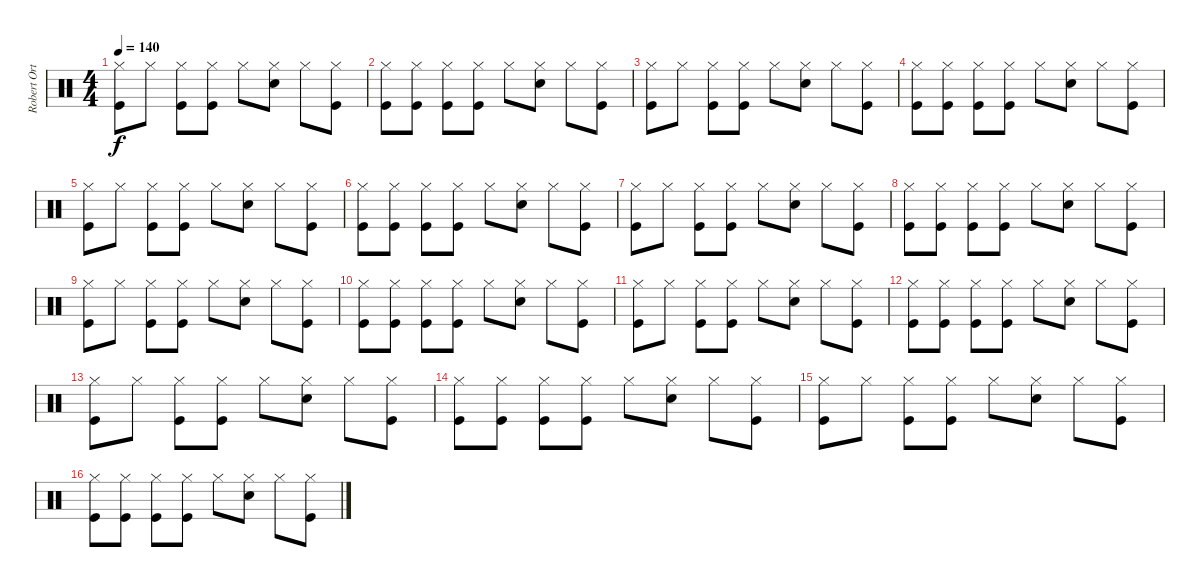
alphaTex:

\track ("Robert Ortiz" "Robert Ort") {instrument percussion}
\staff {score}
\articulation defaults
\ts (4 4)
\tempo 140
\clef neutral
\ks c
("Hi-Hat (closed)" "Kick (hit)").8{dy f} "Hi-Hat (closed)".8 ("Hi-Hat (closed)" "Kick (hit)").8 ("Hi-Hat (closed)" "Kick (hit)").8 "Hi-Hat (closed)".8 ("Hi-Hat (closed)" "Snare (hit) 2").8 "Hi-Hat (closed)".8 ("Hi-Hat (closed)" "Kick (hit)").8 |
("Hi-Hat (closed)" "Kick (hit)").8 ("Hi-Hat (closed)" "Kick (hit)").8 ("Hi-Hat (closed)" "Kick (hit)").8 ("Hi-Hat (closed)" "Kick (hit)").8 "Hi-Hat (closed)".8 ("Hi-Hat (closed)" "Snare (hit) 2").8 "Hi-Hat (closed)".8 ("Hi-Hat (closed)" "Kick (hit)").8 |
("Hi-Hat (closed)" "Kick (hit)").8 "Hi-Hat (closed)".8 ("Hi-Hat (closed)" "Kick (hit)").8 ("Hi-Hat (closed)" "Kick (hit)").8 "Hi-Hat (closed)".8 ("Hi-Hat (closed)" "Snare (hit) 2").8 "Hi-Hat (closed)".8 ("Hi-Hat (closed)" "Kick (hit)").8 |
("Hi-Hat (closed)" "Kick (hit)").8 ("Hi-Hat (closed)" "Kick (hit)").8 ("Hi-Hat (closed)" "Kick (hit)").8 ("Hi-Hat (closed)" "Kick (hit)").8 "Hi-Hat (closed)".8 ("Hi-Hat (closed)" "Snare (hit) 2").8 "Hi-Hat (closed)".8 ("Hi-Hat (closed)" "Kick (hit)").8 |
("Hi-Hat (closed)" "Kick (hit)").8 "Hi-Hat (closed)".8 ("Hi-Hat (closed)" "Kick (hit)").8 ("Hi-Hat (closed)" "Kick (hit)").8 "Hi-Hat (closed)".8 ("Hi-Hat (closed)" "Snare (hit) 2").8 "Hi-Hat (closed)".8 ("Hi-Hat (closed)" "Kick (hit)").8 |
("Hi-Hat (closed)" "Kick (hit)").8 ("Hi-Hat (closed)" "Kick (hit)").8 ("Hi-Hat (closed)" "Kick (hit)").8 ("Hi-Hat (closed)" "Kick (hit)").8 "Hi-Hat (closed)".8 ("Hi-Hat (closed)" "Snare (hit) 2").8 "Hi-Hat (closed)".8 ("Hi-Hat (closed)" "Kick (hit)").8 |
("Hi-Hat (closed)" "Kick (hit)").8 "Hi-Hat (closed)".8 ("Hi-Hat (closed)" "Kick (hit)").8 ("Hi-Hat (closed)" "Kick (hit)").8 "Hi-Hat (closed)".8 ("Hi-Hat (closed)" "Snare (hit) 2").8 "Hi-Hat (closed)".8 ("Hi-Hat (closed)" "Kick (hit)").8 |
("Hi-Hat (closed)" "Kick (hit)").8 ("Hi-Hat (closed)" "Kick (hit)").8 ("Hi-Hat (closed)" "Kick (hit)").8 ("Hi-Hat (closed)" "Kick (hit)").8 "Hi-Hat (closed)".8 ("Hi-Hat (closed)" "Snare (hit) 2").8 "Hi-Hat (closed)".8 ("Hi-Hat (closed)" "Kick (hit)").8 |
("Hi-Hat (closed)" "Kick (hit)").8 "Hi-Hat (closed)".8 ("Hi-Hat (closed)" "Kick (hit)").8 ("Hi-Hat (closed)" "Kick (hit)").8 "Hi-Hat (closed)".8 ("Hi-Hat (closed)" "Snare (hit) 2").8 "Hi-Hat (closed)".8 ("Hi-Hat (closed)" "Kick (hit)").8 |
("Hi-Hat (closed)" "Kick (hit)").8 ("Hi-Hat (closed)" "Kick (hit)").8 ("Hi-Hat (closed)" "Kick (hit)").8 ("Hi-Hat (closed)" "Kick (hit)").8 "Hi-Hat (closed)".8 ("Hi-Hat (closed)" "Snare (hit) 2").8 "Hi-Hat (closed)".8 ("Hi-Hat (closed)" "Kick (hit)").8 |
("Hi-Hat (closed)" "Kick (hit)").8 "Hi-Hat (closed)".8 ("Hi-Hat (closed)" "Kick (hit)").8 ("Hi-Hat (closed)" "Kick (hit)").8 "Hi-Hat (closed)".8 ("Hi-Hat (closed)" "Snare (hit) 2").8 "Hi-Hat (closed)".8 ("Hi-Hat (closed)" "Kick (hit)").8 |
("Hi-Hat (closed)" "Kick (hit)").8 ("Hi-Hat (closed)" "Kick (hit)").8 ("Hi-Hat (closed)" "Kick (hit)").8 ("Hi-Hat (closed)" "Kick (hit)").8 "Hi-Hat (closed)".8 ("Hi-Hat (closed)" "Snare (hit) 2").8 "Hi-Hat (closed)".8 ("Hi-Hat (closed)" "Kick (hit)").8 |
("Hi-Hat (closed)" "Kick (hit)").8 "Hi-Hat (closed)".8 ("Hi-Hat (closed)" "Kick (hit)").8 ("Hi-Hat (closed)" "Kick (hit)").8 "Hi-Hat (closed)".8 ("Hi-Hat (closed)" "Snare (hit) 2").8 "Hi-Hat (closed)".8 ("Hi-Hat (closed)" "Kick (hit)").8 |
("Hi-Hat (closed)" "Kick (hit)").8 ("Hi-Hat (closed)" "Kick (hit)").8 ("Hi-Hat (closed)" "Kick (hit)").8 ("Hi-Hat (closed)" "Kick (hit)").8 "Hi-Hat (closed)".8 ("Hi-Hat (closed)" "Snare (hit) 2").8 "Hi-Hat (closed)".8 ("Hi-Hat (closed)" "Kick (hit)").8 |
("Hi-Hat (closed)" "Kick (hit)").8 "Hi-Hat (closed)".8 ("Hi-Hat (closed)" "Kick (hit)").8 ("Hi-Hat (closed)" "Kick (hit)").8 "Hi-Hat (closed)".8 ("Hi-Hat (closed)" "Snare (hit) 2").8 "Hi-Hat (closed)".8 ("Hi-Hat (closed)" "Kick (hit)").8 |
("Hi-Hat (closed)" "Kick (hit)").8 ("Hi-Hat (closed)" "Kick (hit)").8 ("Hi-Hat (closed)" "Kick (hit)").8 ("Hi-Hat (closed)" "Kick (hit)").8 "Hi-Hat (closed)".8 ("Hi-Hat (closed)" "Snare (hit) 2").8 "Hi-Hat (closed)".8 ("Hi-Hat (closed)" "Kick (hit)").8
